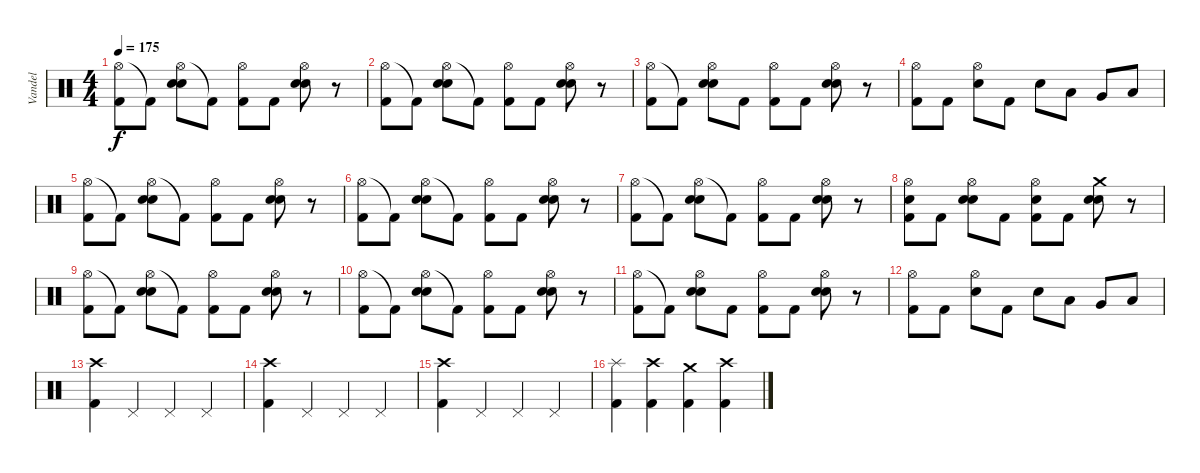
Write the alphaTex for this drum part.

\track ("Vandel" "Vandel") {instrument percussion}
\staff {score}
\articulation defaults
\ts (4 4)
\tempo 175
\clef neutral
\ks c
("Hi-Hat (open)" "Kick (hit) 2").8{dy f} "Kick (hit) 2"{t}.8 ("Hi-Hat (open)" "Electric Snare (hit)" "Electric Snare (hit)").8 "Kick (hit) 2"{t}.8 ("Hi-Hat (open)" "Kick (hit) 2").8 "Kick (hit) 2".8 ("Hi-Hat (open)" "Electric Snare (hit)" "Electric Snare (hit)").8 r.8 |
("Hi-Hat (open)" "Kick (hit) 2").8 "Kick (hit) 2"{t}.8 ("Hi-Hat (open)" "Electric Snare (hit)" "Electric Snare (hit)").8 "Kick (hit) 2"{t}.8 ("Hi-Hat (open)" "Kick (hit) 2").8 "Kick (hit) 2".8 ("Hi-Hat (open)" "Electric Snare (hit)" "Electric Snare (hit)").8 r.8 |
("Hi-Hat (open)" "Kick (hit) 2").8 "Kick (hit) 2"{t}.8 ("Hi-Hat (open)" "Electric Snare (hit)" "Electric Snare (hit)").8 "Kick (hit) 2".8 ("Hi-Hat (open)" "Kick (hit) 2").8 "Kick (hit) 2".8 ("Hi-Hat (open)" "Electric Snare (hit)" "Electric Snare (hit)").8 r.8 |
("Hi-Hat (open)" "Kick (hit) 2").8 "Kick (hit) 2".8 ("Hi-Hat (open)" "Electric Snare (hit)").8 "Kick (hit) 2".8 "Electric Snare (hit)".8 "Low Tom (hit)".8 "Very Low Tom (hit)".8 "Low Floor Tom (hit)".8 |
("Hi-Hat (open)" "Kick (hit) 2").8 "Kick (hit) 2"{t}.8 ("Hi-Hat (open)" "Electric Snare (hit)" "Electric Snare (hit)").8 "Kick (hit) 2"{t}.8 ("Hi-Hat (open)" "Kick (hit) 2").8 "Kick (hit) 2".8 ("Hi-Hat (open)" "Electric Snare (hit)" "Electric Snare (hit)").8 r.8 |
("Hi-Hat (open)" "Kick (hit) 2").8 "Kick (hit) 2"{t}.8 ("Hi-Hat (open)" "Electric Snare (hit)" "Electric Snare (hit)").8 "Kick (hit) 2"{t}.8 ("Hi-Hat (open)" "Kick (hit) 2").8 "Kick (hit) 2".8 ("Hi-Hat (open)" "Electric Snare (hit)" "Electric Snare (hit)").8 r.8 |
("Hi-Hat (open)" "Kick (hit) 2").8 "Kick (hit) 2"{t}.8 ("Hi-Hat (open)" "Electric Snare (hit)" "Electric Snare (hit)").8 "Kick (hit) 2"{t}.8 ("Hi-Hat (open)" "Kick (hit) 2").8 "Kick (hit) 2".8 ("Hi-Hat (open)" "Electric Snare (hit)" "Electric Snare (hit)").8 r.8 |
("Hi-Hat (open)" "Electric Snare (hit)" "Kick (hit) 2").8 "Kick (hit) 2".8 ("Hi-Hat (open)" "Electric Snare (hit)" "Electric Snare (hit)").8 "Kick (hit) 2".8 ("Hi-Hat (open)" "Electric Snare (hit)" "Kick (hit) 2").8 "Kick (hit) 2".8 ("Crash medium (hit)" "Electric Snare (hit)" "Electric Snare (hit)").8 r.8 |
("Hi-Hat (open)" "Kick (hit) 2").8 "Kick (hit) 2"{t}.8 ("Hi-Hat (open)" "Electric Snare (hit)" "Electric Snare (hit)").8 "Kick (hit) 2"{t}.8 ("Hi-Hat (open)" "Kick (hit) 2").8 "Kick (hit) 2".8 ("Hi-Hat (open)" "Electric Snare (hit)" "Electric Snare (hit)").8 r.8 |
("Hi-Hat (open)" "Kick (hit) 2").8 "Kick (hit) 2"{t}.8 ("Hi-Hat (open)" "Electric Snare (hit)" "Electric Snare (hit)").8 "Kick (hit) 2"{t}.8 ("Hi-Hat (open)" "Kick (hit) 2").8 "Kick (hit) 2".8 ("Hi-Hat (open)" "Electric Snare (hit)" "Electric Snare (hit)").8 r.8 |
("Hi-Hat (open)" "Kick (hit) 2").8 "Kick (hit) 2"{t}.8 ("Hi-Hat (open)" "Electric Snare (hit)" "Electric Snare (hit)").8 "Kick (hit) 2".8 ("Hi-Hat (open)" "Kick (hit) 2").8 "Kick (hit) 2".8 ("Hi-Hat (open)" "Electric Snare (hit)" "Electric Snare (hit)").8 r.8 |
("Hi-Hat (open)" "Kick (hit) 2").8 "Kick (hit) 2".8 ("Hi-Hat (open)" "Electric Snare (hit)").8 "Kick (hit) 2".8 "Electric Snare (hit)".8 "Low Tom (hit)".8 "Very Low Tom (hit)".8 "Low Floor Tom (hit)".8 |
("Crash high (hit)" "Kick (hit) 2").4 "Pedal Hi-Hat (hit)".4 "Pedal Hi-Hat (hit)".4 "Pedal Hi-Hat (hit)".4 |
("Crash high (hit)" "Kick (hit) 2").4 "Pedal Hi-Hat (hit)".4 "Pedal Hi-Hat (hit)".4 "Pedal Hi-Hat (hit)".4 |
("Crash high (hit)" "Kick (hit) 2").4 "Pedal Hi-Hat (hit)".4 "Pedal Hi-Hat (hit)".4 "Pedal Hi-Hat (hit)".4 |
("Splash (hit)" "Kick (hit) 2").4 ("Crash high (hit)" "Kick (hit) 2").4 ("Crash medium (hit)" "Kick (hit) 2").4 ("Crash high (hit)" "Kick (hit) 2").4
